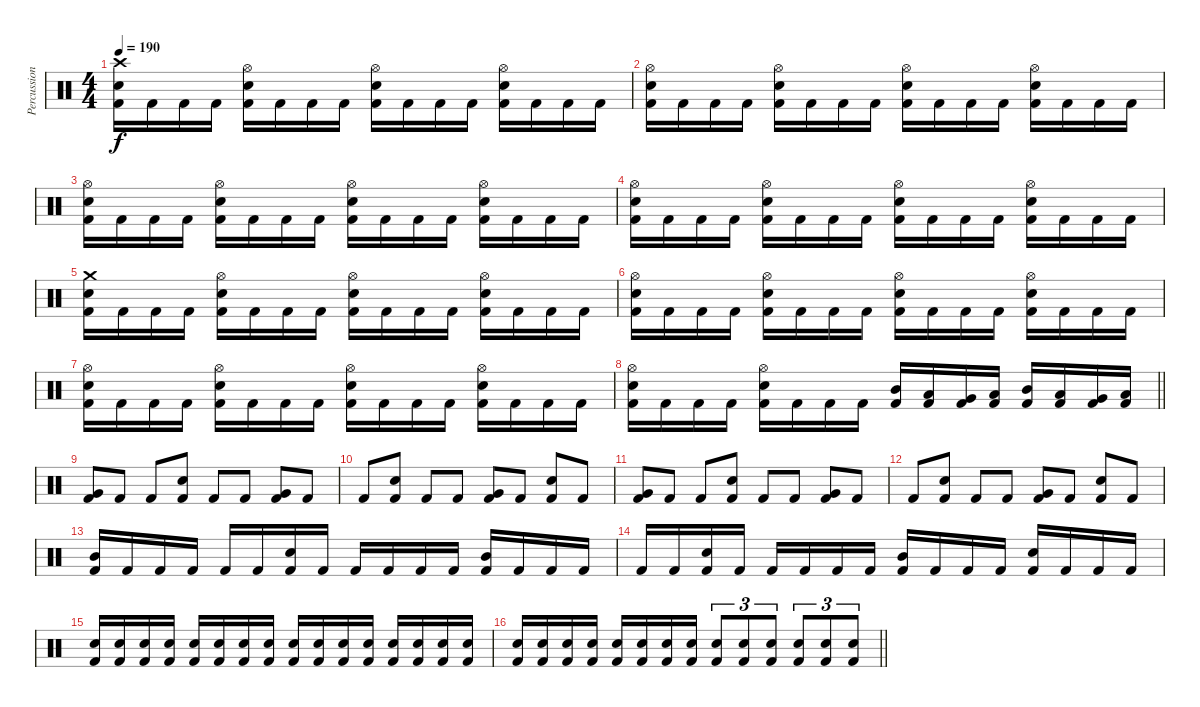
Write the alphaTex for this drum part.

\track ("Percussion" "Percussion") {instrument percussion}
\staff {score}
\articulation defaults
\ts (4 4)
\tempo 190
\clef neutral
\ks c
("Crash high (hit)" "Snare (hit) 2" "Kick (hit) 2").16{dy f} "Kick (hit) 2".16 "Kick (hit) 2".16 "Kick (hit) 2".16 ("Hi-Hat (open)" "Snare (hit) 2" "Kick (hit) 2").16 "Kick (hit) 2".16 "Kick (hit) 2".16 "Kick (hit) 2".16 ("Hi-Hat (open)" "Snare (hit) 2" "Kick (hit) 2").16 "Kick (hit) 2".16 "Kick (hit) 2".16 "Kick (hit) 2".16 ("Hi-Hat (open)" "Snare (hit) 2" "Kick (hit) 2").16 "Kick (hit) 2".16 "Kick (hit) 2".16 "Kick (hit) 2".16 |
("Hi-Hat (open)" "Snare (hit) 2" "Kick (hit) 2").16 "Kick (hit) 2".16 "Kick (hit) 2".16 "Kick (hit) 2".16 ("Hi-Hat (open)" "Snare (hit) 2" "Kick (hit) 2").16 "Kick (hit) 2".16 "Kick (hit) 2".16 "Kick (hit) 2".16 ("Hi-Hat (open)" "Snare (hit) 2" "Kick (hit) 2").16 "Kick (hit) 2".16 "Kick (hit) 2".16 "Kick (hit) 2".16 ("Hi-Hat (open)" "Snare (hit) 2" "Kick (hit) 2").16 "Kick (hit) 2".16 "Kick (hit) 2".16 "Kick (hit) 2".16 |
("Hi-Hat (open)" "Snare (hit) 2" "Kick (hit) 2").16 "Kick (hit) 2".16 "Kick (hit) 2".16 "Kick (hit) 2".16 ("Hi-Hat (open)" "Snare (hit) 2" "Kick (hit) 2").16 "Kick (hit) 2".16 "Kick (hit) 2".16 "Kick (hit) 2".16 ("Hi-Hat (open)" "Snare (hit) 2" "Kick (hit) 2").16 "Kick (hit) 2".16 "Kick (hit) 2".16 "Kick (hit) 2".16 ("Hi-Hat (open)" "Snare (hit) 2" "Kick (hit) 2").16 "Kick (hit) 2".16 "Kick (hit) 2".16 "Kick (hit) 2".16 |
("Hi-Hat (open)" "Snare (hit) 2" "Kick (hit) 2").16 "Kick (hit) 2".16 "Kick (hit) 2".16 "Kick (hit) 2".16 ("Hi-Hat (open)" "Snare (hit) 2" "Kick (hit) 2").16 "Kick (hit) 2".16 "Kick (hit) 2".16 "Kick (hit) 2".16 ("Hi-Hat (open)" "Snare (hit) 2" "Kick (hit) 2").16 "Kick (hit) 2".16 "Kick (hit) 2".16 "Kick (hit) 2".16 ("Hi-Hat (open)" "Snare (hit) 2" "Kick (hit) 2").16 "Kick (hit) 2".16 "Kick (hit) 2".16 "Kick (hit) 2".16 |
("Crash medium (hit)" "Snare (hit) 2" "Kick (hit) 2").16 "Kick (hit) 2".16 "Kick (hit) 2".16 "Kick (hit) 2".16 ("Hi-Hat (open)" "Snare (hit) 2" "Kick (hit) 2").16 "Kick (hit) 2".16 "Kick (hit) 2".16 "Kick (hit) 2".16 ("Hi-Hat (open)" "Snare (hit) 2" "Kick (hit) 2").16 "Kick (hit) 2".16 "Kick (hit) 2".16 "Kick (hit) 2".16 ("Hi-Hat (open)" "Snare (hit) 2" "Kick (hit) 2").16 "Kick (hit) 2".16 "Kick (hit) 2".16 "Kick (hit) 2".16 |
("Hi-Hat (open)" "Snare (hit) 2" "Kick (hit) 2").16 "Kick (hit) 2".16 "Kick (hit) 2".16 "Kick (hit) 2".16 ("Hi-Hat (open)" "Snare (hit) 2" "Kick (hit) 2").16 "Kick (hit) 2".16 "Kick (hit) 2".16 "Kick (hit) 2".16 ("Hi-Hat (open)" "Snare (hit) 2" "Kick (hit) 2").16 "Kick (hit) 2".16 "Kick (hit) 2".16 "Kick (hit) 2".16 ("Hi-Hat (open)" "Snare (hit) 2" "Kick (hit) 2").16 "Kick (hit) 2".16 "Kick (hit) 2".16 "Kick (hit) 2".16 |
("Hi-Hat (open)" "Snare (hit) 2" "Kick (hit) 2").16 "Kick (hit) 2".16 "Kick (hit) 2".16 "Kick (hit) 2".16 ("Hi-Hat (open)" "Snare (hit) 2" "Kick (hit) 2").16 "Kick (hit) 2".16 "Kick (hit) 2".16 "Kick (hit) 2".16 ("Hi-Hat (open)" "Snare (hit) 2" "Kick (hit) 2").16 "Kick (hit) 2".16 "Kick (hit) 2".16 "Kick (hit) 2".16 ("Hi-Hat (open)" "Snare (hit) 2" "Kick (hit) 2").16 "Kick (hit) 2".16 "Kick (hit) 2".16 "Kick (hit) 2".16 |
\barLineRight lightlight
("Hi-Hat (open)" "Snare (hit) 2" "Kick (hit) 2").16 "Kick (hit) 2".16 "Kick (hit) 2".16 "Kick (hit) 2".16 ("Hi-Hat (open)" "Snare (hit) 2" "Kick (hit) 2").16 "Kick (hit) 2".16 "Kick (hit) 2".16 "Kick (hit) 2".16 ("Mid Tom (hit)" "Kick (hit) 2").16 ("Low Tom (hit)" "Kick (hit) 2").16 ("Very Low Tom (hit)" "Kick (hit) 2").16 ("Low Floor Tom (hit)" "Kick (hit) 2").16 ("Mid Tom (hit)" "Kick (hit) 2").16 ("Low Tom (hit)" "Kick (hit) 2").16 ("Very Low Tom (hit)" "Kick (hit) 2").16 ("Low Floor Tom (hit)" "Kick (hit) 2").16 |
("Very Low Tom (hit)" "Kick (hit) 2").8 "Kick (hit) 2".8 "Kick (hit) 2".8 ("Snare (hit) 2" "Kick (hit) 2").8 "Kick (hit) 2".8 "Kick (hit) 2".8 ("Very Low Tom (hit)" "Kick (hit) 2").8 "Kick (hit) 2".8 |
"Kick (hit) 2".8 ("Snare (hit) 2" "Kick (hit) 2").8 "Kick (hit) 2".8 "Kick (hit) 2".8 ("Very Low Tom (hit)" "Kick (hit) 2").8 "Kick (hit) 2".8 ("Snare (hit) 2" "Kick (hit) 2").8 "Kick (hit) 2".8 |
("Very Low Tom (hit)" "Kick (hit) 2").8 "Kick (hit) 2".8 "Kick (hit) 2".8 ("Snare (hit) 2" "Kick (hit) 2").8 "Kick (hit) 2".8 "Kick (hit) 2".8 ("Very Low Tom (hit)" "Kick (hit) 2").8 "Kick (hit) 2".8 |
"Kick (hit) 2".8 ("Snare (hit) 2" "Kick (hit) 2").8 "Kick (hit) 2".8 "Kick (hit) 2".8 ("Very Low Tom (hit)" "Kick (hit) 2").8 "Kick (hit) 2".8 ("Snare (hit) 2" "Kick (hit) 2").8 "Kick (hit) 2".8 |
("Mid Tom (hit)" "Kick (hit) 2").16 "Kick (hit) 2".16 "Kick (hit) 2".16 "Kick (hit) 2".16 "Kick (hit) 2".16 "Kick (hit) 2".16 ("Snare (hit) 2" "Kick (hit) 2").16 "Kick (hit) 2".16 "Kick (hit) 2".16 "Kick (hit) 2".16 "Kick (hit) 2".16 "Kick (hit) 2".16 ("Mid Tom (hit)" "Kick (hit) 2").16 "Kick (hit) 2".16 "Kick (hit) 2".16 "Kick (hit) 2".16 |
"Kick (hit) 2".16 "Kick (hit) 2".16 ("Snare (hit) 2" "Kick (hit) 2").16 "Kick (hit) 2".16 "Kick (hit) 2".16 "Kick (hit) 2".16 "Kick (hit) 2".16 "Kick (hit) 2".16 ("Mid Tom (hit)" "Kick (hit) 2").16 "Kick (hit) 2".16 "Kick (hit) 2".16 "Kick (hit) 2".16 ("Snare (hit) 2" "Kick (hit) 2").16 "Kick (hit) 2".16 "Kick (hit) 2".16 "Kick (hit) 2".16 |
("Snare (hit) 2" "Kick (hit) 2").16 ("Snare (hit) 2" "Kick (hit) 2").16 ("Snare (hit) 2" "Kick (hit) 2").16 ("Snare (hit) 2" "Kick (hit) 2").16 ("Snare (hit) 2" "Kick (hit) 2").16 ("Snare (hit) 2" "Kick (hit) 2").16 ("Snare (hit) 2" "Kick (hit) 2").16 ("Snare (hit) 2" "Kick (hit) 2").16 ("Snare (hit) 2" "Kick (hit) 2").16 ("Snare (hit) 2" "Kick (hit) 2").16 ("Snare (hit) 2" "Kick (hit) 2").16 ("Snare (hit) 2" "Kick (hit) 2").16 ("Snare (hit) 2" "Kick (hit) 2").16 ("Snare (hit) 2" "Kick (hit) 2").16 ("Snare (hit) 2" "Kick (hit) 2").16 ("Snare (hit) 2" "Kick (hit) 2").16 |
\barLineRight lightlight
("Snare (hit) 2" "Kick (hit) 2").16 ("Snare (hit) 2" "Kick (hit) 2").16 ("Snare (hit) 2" "Kick (hit) 2").16 ("Snare (hit) 2" "Kick (hit) 2").16 ("Snare (hit) 2" "Kick (hit) 2").16 ("Snare (hit) 2" "Kick (hit) 2").16 ("Snare (hit) 2" "Kick (hit) 2").16 ("Snare (hit) 2" "Kick (hit) 2").16 ("Snare (hit) 2" "Kick (hit) 2").8{tu (3 2)} ("Snare (hit) 2" "Kick (hit) 2").8{tu (3 2)} ("Snare (hit) 2" "Kick (hit) 2").8{tu (3 2)} ("Snare (hit) 2" "Kick (hit) 2").8{tu (3 2)} ("Snare (hit) 2" "Kick (hit) 2").8{tu (3 2)} ("Snare (hit) 2" "Kick (hit) 2").8{tu (3 2)}
